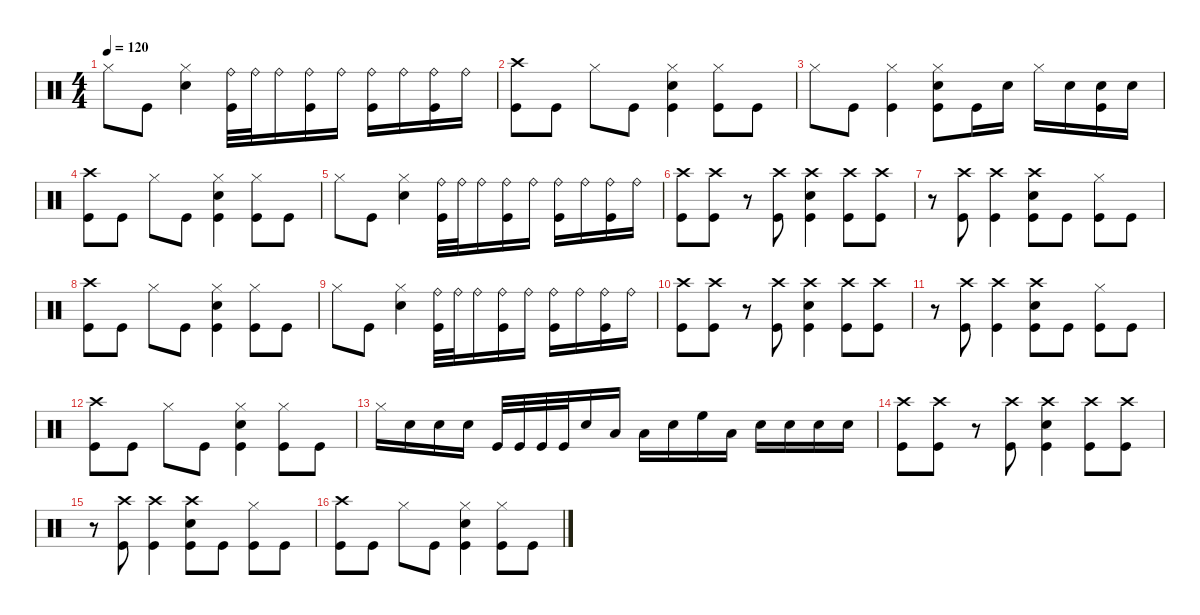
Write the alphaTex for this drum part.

\defaultSystemsLayout 4
\hideDynamics
\bracketExtendMode nobrackets
\singleTrackTrackNamePolicy hidden
\multiTrackTrackNamePolicy hidden
\firstSystemTrackNameMode fullname
\firstSystemTrackNameOrientation horizontal
\otherSystemsTrackNameOrientation horizontal
\track ("Drums" "drm.") {instrument percussion}
\staff {score}
\articulation defaults
\ts (4 4)
\tempo 120
\clef neutral
\ks c "Hi-Hat (closed)".8{dy f beam Down} "Kick (hit)".8{beam Down}
("Snare (hit) 2" "Hi-Hat (closed)").4{beam Down} ("Kick (hit)" "Ride (bell)").32{beam Down} "Ride (bell)".32{beam Down} "Ride (bell)".16{beam Down} ("Kick (hit)" "Ride (bell)").16{beam Down} "Ride (bell)".16{beam Down} ("Kick (hit)" "Ride (bell)").16{beam Down} "Ride (bell)".16{beam Down} ("Kick (hit)" "Ride (bell)").16{beam Down} "Ride (bell)".16{beam Down} |
("Kick (hit)" "Crash high (hit)").8{beam Down} "Kick (hit)".8{beam Down} "Hi-Hat (closed)".8{beam Down} "Kick (hit)".8{beam Down} ("Kick (hit)" "Snare (hit) 2" "Hi-Hat (closed)").4{beam Down} ("Kick (hit)" "Hi-Hat (closed)").8{beam Down} "Kick (hit)".8{beam Down} |
"Hi-Hat (closed)".8{beam Down} "Kick (hit)".8{beam Down} ("Hi-Hat (closed)" "Kick (hit)").4{beam Down} ("Snare (hit) 2" "Hi-Hat (closed)" "Kick (hit)").8{beam Down} "Kick (hit)".16{beam Down} "Snare (hit) 2".16{beam Down} "Hi-Hat (closed)".16{beam Down} "Snare (hit) 2".16{beam Down} ("Snare (hit) 2" "Kick (hit)").16{beam Down} "Snare (hit) 2".16{beam Down} |
("Crash high (hit)" "Kick (hit)").8{beam Down} "Kick (hit)".8{beam Down} "Hi-Hat (closed)".8{beam Down} "Kick (hit)".8{beam Down} ("Snare (hit) 2" "Hi-Hat (closed)" "Kick (hit)").4{beam Down} ("Hi-Hat (closed)" "Kick (hit)").8{beam Down} "Kick (hit)".8{beam Down} |
"Hi-Hat (closed)".8{beam Down} "Kick (hit)".8{beam Down} ("Snare (hit) 2" "Hi-Hat (closed)").4{beam Down} ("Kick (hit)" "Ride (bell)").32{beam Down} "Ride (bell)".32{beam Down} "Ride (bell)".16{beam Down} ("Kick (hit)" "Ride (bell)").16{beam Down} "Ride (bell)".16{beam Down} ("Kick (hit)" "Ride (bell)").16{beam Down} "Ride (bell)".16{beam Down} ("Kick (hit)" "Ride (bell)").16{beam Down} "Ride (bell)".16{beam Down} |
("Kick (hit)" "Crash high (hit)").8{beam Down} ("Kick (hit)" "Crash high (hit)").8{beam Down} r.8{beam Down} ("Kick (hit)" "Crash high (hit)").8{beam Down} ("Kick (hit)" "Snare (hit) 2" "Crash high (hit)").4{beam Down} ("Kick (hit)" "Crash high (hit)").8{beam Down} ("Kick (hit)" "Crash high (hit)").8{beam Down} |
r.8{beam Down} ("Kick (hit)" "Crash high (hit)").8{beam Down} ("Kick (hit)" "Crash high (hit)").4{beam Down} ("Kick (hit)" "Snare (hit) 2" "Crash high (hit)").8{beam Down} "Kick (hit)".8{beam Down} ("Kick (hit)" "Hi-Hat (closed)").8{beam Down} "Kick (hit)".8{beam Down} |
("Crash high (hit)" "Kick (hit)").8{beam Down} "Kick (hit)".8{beam Down} "Hi-Hat (closed)".8{beam Down} "Kick (hit)".8{beam Down} ("Snare (hit) 2" "Hi-Hat (closed)" "Kick (hit)").4{beam Down} ("Hi-Hat (closed)" "Kick (hit)").8{beam Down} "Kick (hit)".8{beam Down} |
"Hi-Hat (closed)".8{beam Down} "Kick (hit)".8{beam Down} ("Snare (hit) 2" "Hi-Hat (closed)").4{beam Down} ("Kick (hit)" "Ride (bell)").32{beam Down} "Ride (bell)".32{beam Down} "Ride (bell)".16{beam Down} ("Kick (hit)" "Ride (bell)").16{beam Down} "Ride (bell)".16{beam Down} ("Kick (hit)" "Ride (bell)").16{beam Down} "Ride (bell)".16{beam Down} ("Kick (hit)" "Ride (bell)").16{beam Down} "Ride (bell)".16{beam Down} |
("Crash high (hit)" "Kick (hit)").8{beam Down} ("Crash high (hit)" "Kick (hit)").8{beam Down} r.8{beam Down} ("Crash high (hit)" "Kick (hit)").8{beam Down} ("Snare (hit) 2" "Crash high (hit)" "Kick (hit)").4{beam Down} ("Crash high (hit)" "Kick (hit)").8{beam Down} ("Crash high (hit)" "Kick (hit)").8{beam Down} |
r.8{beam Down} ("Crash high (hit)" "Kick (hit)").8{beam Down} ("Crash high (hit)" "Kick (hit)").4{beam Down} ("Snare (hit) 2" "Crash high (hit)" "Kick (hit)").8{beam Down} "Kick (hit)".8{beam Down} ("Hi-Hat (closed)" "Kick (hit)").8{beam Down} "Kick (hit)".8{beam Down} |
("Kick (hit)" "Crash high (hit)").8{beam Down} "Kick (hit)".8{beam Down} "Hi-Hat (closed)".8{beam Down} "Kick (hit)".8{beam Down} ("Kick (hit)" "Snare (hit) 2" "Hi-Hat (closed)").4{beam Down} ("Kick (hit)" "Hi-Hat (closed)").8{beam Down} "Kick (hit)".8{beam Down} |
"Hi-Hat (closed)".16{beam Down} "Snare (hit) 2".16{beam Down} "Snare (hit) 2".16{beam Down} "Snare (hit) 2".16{beam Down} "Kick (hit)".32{beam Up} "Kick (hit)".32{beam Up} "Kick (hit)".32{beam Up} "Kick (hit)".32{beam Up} "Snare (hit) 2".16{beam Up} "Low Floor Tom (hit)".16{beam Up} "Low Tom (hit)".16{beam Down} "Snare (hit) 2".16{beam Down} "High Floor Tom (hit)".16{beam Down} "Low Tom (hit)".16{beam Down} "Snare (hit) 2".16{beam Down} "Snare (hit) 2".16{beam Down} "Snare (hit) 2".16{beam Down} "Snare (hit) 2".16{beam Down} |
("Kick (hit)" "Crash high (hit)").8{beam Down} ("Kick (hit)" "Crash high (hit)").8{beam Down} r.8{beam Down} ("Kick (hit)" "Crash high (hit)").8{beam Down} ("Kick (hit)" "Snare (hit) 2" "Crash high (hit)").4{beam Down} ("Kick (hit)" "Crash high (hit)").8{beam Down} ("Kick (hit)" "Crash high (hit)").8{beam Down} |
r.8{beam Down} ("Kick (hit)" "Crash high (hit)").8{beam Down} ("Kick (hit)" "Crash high (hit)").4{beam Down} ("Kick (hit)" "Snare (hit) 2" "Crash high (hit)").8{beam Down} "Kick (hit)".8{beam Down} ("Kick (hit)" "Hi-Hat (closed)").8{beam Down} "Kick (hit)".8{beam Down} |
("Crash high (hit)" "Kick (hit)").8{beam Down} "Kick (hit)".8{beam Down} "Hi-Hat (closed)".8{beam Down} "Kick (hit)".8{beam Down} ("Snare (hit) 2" "Hi-Hat (closed)" "Kick (hit)").4{beam Down} ("Hi-Hat (closed)" "Kick (hit)").8{beam Down} "Kick (hit)".8{beam Down}
